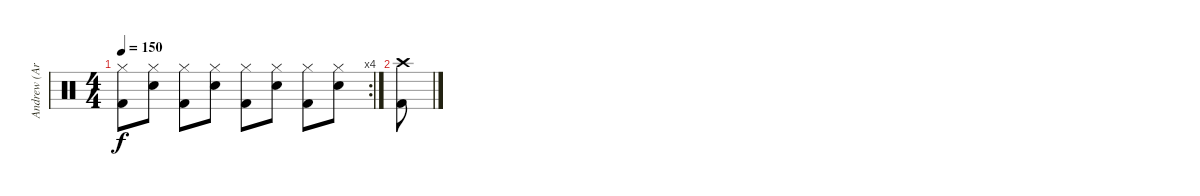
\track ("Andrew (Arthur)" "Andrew (Ar") {instrument percussion}
\staff {score}
\articulation defaults
\rc 4
\ts (4 4)
\tempo 150
\clef neutral
\ks c
("Hi-Hat (closed)" "Kick (hit) 2").8{dy f} ("Hi-Hat (closed)" "Electric Snare (hit)").8 ("Hi-Hat (closed)" "Kick (hit) 2").8 ("Hi-Hat (closed)" "Electric Snare (hit)").8 ("Hi-Hat (closed)" "Kick (hit) 2").8 ("Hi-Hat (closed)" "Electric Snare (hit)").8 ("Hi-Hat (closed)" "Kick (hit) 2").8 ("Hi-Hat (closed)" "Electric Snare (hit)").8 |
("Crash high (hit)" "Kick (hit) 2").8
